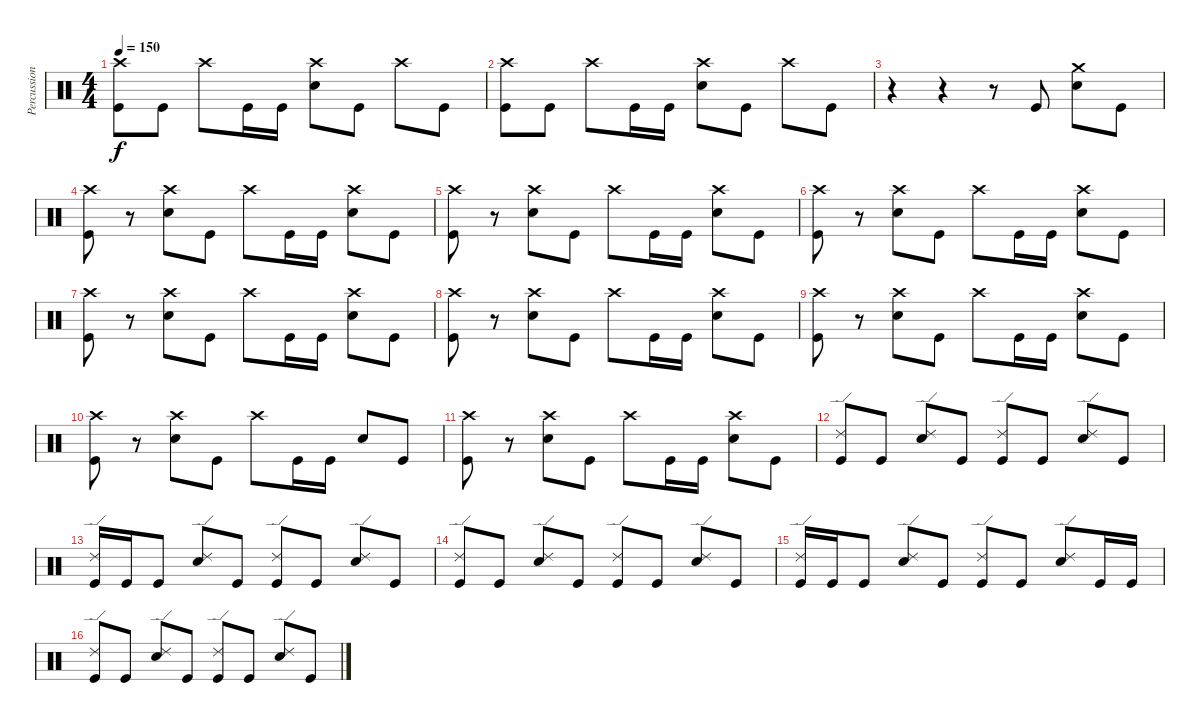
\track ("Percussion" "Percussion") {instrument percussion}
\staff {score}
\articulation defaults
\ts (4 4)
\tempo 150
\clef neutral
\ks c
("Crash high (hit)" "Kick (hit)").8{dy f} "Kick (hit)".8 "Crash high (hit)".8 "Kick (hit)".16 "Kick (hit)".16 ("Crash high (hit)" "Electric Snare (hit)").8 "Kick (hit)".8 "Crash high (hit)".8 "Kick (hit)".8 |
("Crash high (hit)" "Kick (hit)").8 "Kick (hit)".8 "Crash high (hit)".8 "Kick (hit)".16 "Kick (hit)".16 ("Crash high (hit)" "Electric Snare (hit)").8 "Kick (hit)".8 "Crash high (hit)".8 "Kick (hit)".8 |
r.4 r.4 r.8 "Kick (hit)".8 ("Crash medium (hit)" "Electric Snare (hit)").8 "Kick (hit)".8 |
("Crash high (hit)" "Kick (hit)").8 r.8 ("Crash high (hit)" "Electric Snare (hit)").8 "Kick (hit)".8 "Crash high (hit)".8 "Kick (hit)".16 "Kick (hit)".16 ("Crash high (hit)" "Electric Snare (hit)").8 "Kick (hit)".8 |
("Crash high (hit)" "Kick (hit)").8 r.8 ("Crash high (hit)" "Electric Snare (hit)").8 "Kick (hit)".8 "Crash high (hit)".8 "Kick (hit)".16 "Kick (hit)".16 ("Crash high (hit)" "Electric Snare (hit)").8 "Kick (hit)".8 |
("Crash high (hit)" "Kick (hit)").8 r.8 ("Crash high (hit)" "Electric Snare (hit)").8 "Kick (hit)".8 "Crash high (hit)".8 "Kick (hit)".16 "Kick (hit)".16 ("Crash high (hit)" "Electric Snare (hit)").8 "Kick (hit)".8 |
("Crash high (hit)" "Kick (hit)").8 r.8 ("Crash high (hit)" "Electric Snare (hit)").8 "Kick (hit)".8 "Crash high (hit)".8 "Kick (hit)".16 "Kick (hit)".16 ("Crash high (hit)" "Electric Snare (hit)").8 "Kick (hit)".8 |
("Crash high (hit)" "Kick (hit)").8 r.8 ("Crash high (hit)" "Electric Snare (hit)").8 "Kick (hit)".8 "Crash high (hit)".8 "Kick (hit)".16 "Kick (hit)".16 ("Crash high (hit)" "Electric Snare (hit)").8 "Kick (hit)".8 |
("Crash high (hit)" "Kick (hit)").8 r.8 ("Crash high (hit)" "Electric Snare (hit)").8 "Kick (hit)".8 "Crash high (hit)".8 "Kick (hit)".16 "Kick (hit)".16 ("Crash high (hit)" "Electric Snare (hit)").8 "Kick (hit)".8 |
("Crash high (hit)" "Kick (hit)").8 r.8 ("Crash high (hit)" "Electric Snare (hit)").8 "Kick (hit)".8 "Crash high (hit)".8 "Kick (hit)".16 "Kick (hit)".16 "Electric Snare (hit)".8 "Kick (hit)".8 |
("Crash high (hit)" "Kick (hit)").8 r.8 ("Crash high (hit)" "Electric Snare (hit)").8 "Kick (hit)".8 "Crash high (hit)".8 "Kick (hit)".16 "Kick (hit)".16 ("Crash high (hit)" "Electric Snare (hit)").8 "Kick (hit)".8 |
("Ride (edge) 2" "Kick (hit)").8 "Kick (hit)".8 ("Ride (edge) 2" "Electric Snare (hit)").8 "Kick (hit)".8 ("Ride (edge) 2" "Kick (hit)").8 "Kick (hit)".8 ("Ride (edge) 2" "Electric Snare (hit)").8 "Kick (hit)".8 |
("Ride (edge) 2" "Kick (hit)").16 "Kick (hit)".16 "Kick (hit)".8 ("Ride (edge) 2" "Electric Snare (hit)").8 "Kick (hit)".8 ("Ride (edge) 2" "Kick (hit)").8 "Kick (hit)".8 ("Ride (edge) 2" "Electric Snare (hit)").8 "Kick (hit)".8 |
("Ride (edge) 2" "Kick (hit)").8 "Kick (hit)".8 ("Ride (edge) 2" "Electric Snare (hit)").8 "Kick (hit)".8 ("Ride (edge) 2" "Kick (hit)").8 "Kick (hit)".8 ("Ride (edge) 2" "Electric Snare (hit)").8 "Kick (hit)".8 |
("Ride (edge) 2" "Kick (hit)").16 "Kick (hit)".16 "Kick (hit)".8 ("Ride (edge) 2" "Electric Snare (hit)").8 "Kick (hit)".8 ("Ride (edge) 2" "Kick (hit)").8 "Kick (hit)".8 ("Ride (edge) 2" "Electric Snare (hit)").8 "Kick (hit)".16 "Kick (hit)".16 |
("Ride (edge) 2" "Kick (hit)").8 "Kick (hit)".8 ("Ride (edge) 2" "Electric Snare (hit)").8 "Kick (hit)".8 ("Ride (edge) 2" "Kick (hit)").8 "Kick (hit)".8 ("Ride (edge) 2" "Electric Snare (hit)").8 "Kick (hit)".8
